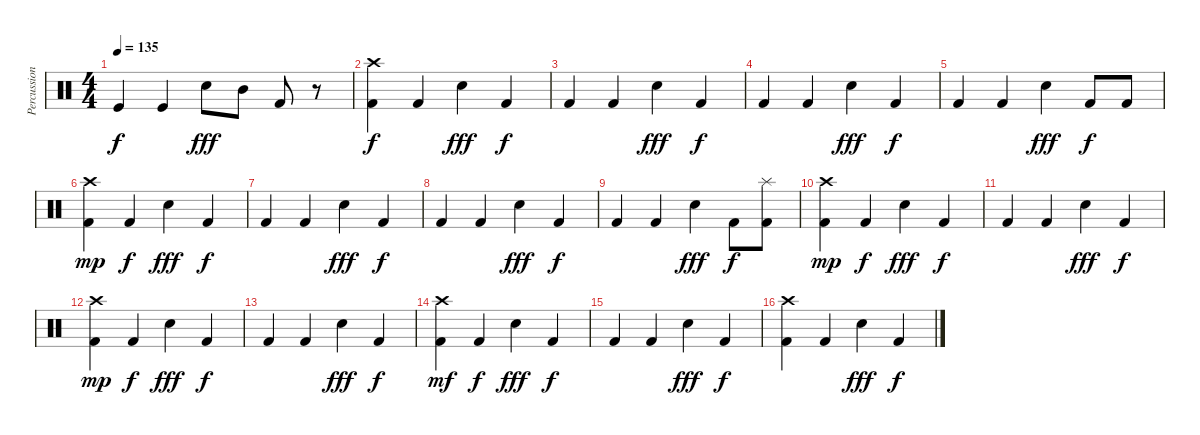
\track ("Percussion1" "Percussion") {instrument percussion}
\staff {score}
\articulation defaults
\ts (4 4)
\tempo 135
\clef neutral
\ks c "Kick (hit)".4{dy f} "Kick (hit)".4 "Electric Snare (hit)".8{dy fff} "Mid Tom (hit)".8 "Kick (hit) 2".8
r.8 |
("Kick (hit) 2" "Crash high (hit)").4{dy f} "Kick (hit) 2".4 "Electric Snare (hit)".4{dy fff} "Kick (hit) 2".4{dy f} |
"Kick (hit) 2".4 "Kick (hit) 2".4 "Electric Snare (hit)".4{dy fff} "Kick (hit) 2".4{dy f} |
"Kick (hit) 2".4 "Kick (hit) 2".4 "Electric Snare (hit)".4{dy fff} "Kick (hit) 2".4{dy f} |
"Kick (hit) 2".4 "Kick (hit) 2".4 "Electric Snare (hit)".4{dy fff} "Kick (hit) 2".8{dy f} "Kick (hit) 2".8 |
("Kick (hit) 2" "Crash high (hit)").4{dy mp} "Kick (hit) 2".4{dy f} "Electric Snare (hit)".4{dy fff} "Kick (hit) 2".4{dy f} |
"Kick (hit) 2".4 "Kick (hit) 2".4 "Electric Snare (hit)".4{dy fff} "Kick (hit) 2".4{dy f} |
"Kick (hit) 2".4 "Kick (hit) 2".4 "Electric Snare (hit)".4{dy fff} "Kick (hit) 2".4{dy f} |
"Kick (hit) 2".4 "Kick (hit) 2".4 "Electric Snare (hit)".4{dy fff} "Kick (hit) 2".8{dy f} ("Kick (hit) 2" "Splash (hit)").8 |
("Kick (hit) 2" "Crash high (hit)").4{dy mp} "Kick (hit) 2".4{dy f} "Electric Snare (hit)".4{dy fff} "Kick (hit) 2".4{dy f} |
"Kick (hit) 2".4 "Kick (hit) 2".4 "Electric Snare (hit)".4{dy fff} "Kick (hit) 2".4{dy f} |
("Kick (hit) 2" "Crash high (hit)").4{dy mp} "Kick (hit) 2".4{dy f} "Electric Snare (hit)".4{dy fff} "Kick (hit) 2".4{dy f} |
"Kick (hit) 2".4 "Kick (hit) 2".4 "Electric Snare (hit)".4{dy fff} "Kick (hit) 2".4{dy f} |
("Kick (hit) 2" "Crash high (hit)").4{dy mf} "Kick (hit) 2".4{dy f} "Electric Snare (hit)".4{dy fff} "Kick (hit) 2".4{dy f} |
"Kick (hit) 2".4 "Kick (hit) 2".4 "Electric Snare (hit)".4{dy fff} "Kick (hit) 2".4{dy f} |
("Kick (hit) 2" "Crash high (hit)").4 "Kick (hit) 2".4 "Electric Snare (hit)".4{dy fff} "Kick (hit) 2".4{dy f}
